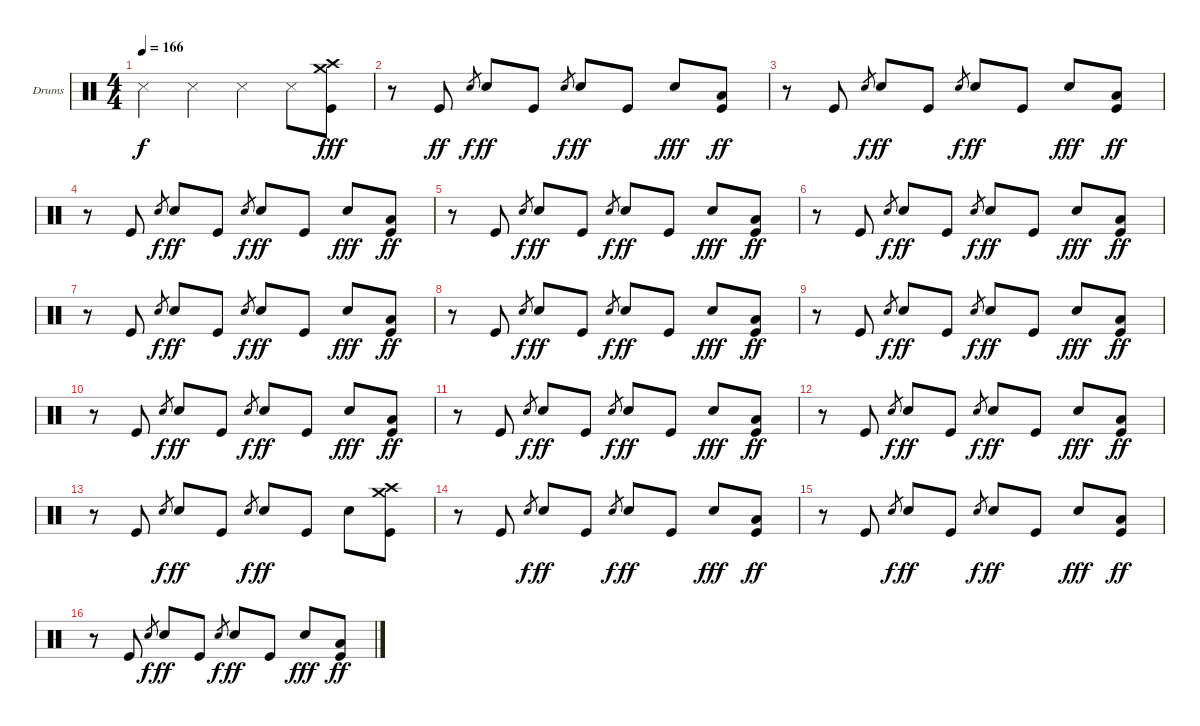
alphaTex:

\defaultSystemsLayout 4
\bracketExtendMode groupsimilarinstruments
\firstSystemTrackNameOrientation horizontal
\otherSystemsTrackNameOrientation horizontal
\track ("Lars Ulrich" "Drums") {instrument percussion}
\staff {score}
\articulation defaults
\ts (4 4)
\tempo 166
\clef neutral
\scale
0.474178
\ks c "Snare (side stick) 3".4{dy f} "Snare (side stick) 3".4 "Snare (side stick) 3".4 "Snare (side stick) 3".8
("Crash high (hit)" "Crash medium (hit)" "Kick (hit)").8{dy fff} |
\scale
0.262911 r.8 "Kick (hit)".8{dy ff} "Snare (hit) 2".8{gr dy f} "Snare (hit) 2".8{dy ff} "Kick (hit)".8 "Snare (hit) 2".8{gr dy f} "Snare (hit) 2".8{dy ff} "Kick (hit)".8 "Snare (hit) 2".8{dy fff} ("Low Tom (hit)" "Kick (hit)").8{dy ff} |
\scale
0.262911 r.8 "Kick (hit)".8 "Snare (hit) 2".8{gr dy f} "Snare (hit) 2".8{dy ff} "Kick (hit)".8 "Snare (hit) 2".8{gr dy f} "Snare (hit) 2".8{dy ff} "Kick (hit)".8 "Snare (hit) 2".8{dy fff} ("Low Tom (hit)" "Kick (hit)").8{dy ff} |
\scale
0.333333 r.8 "Kick (hit)".8 "Snare (hit) 2".8{gr dy f} "Snare (hit) 2".8{dy ff} "Kick (hit)".8 "Snare (hit) 2".8{gr dy f} "Snare (hit) 2".8{dy ff} "Kick (hit)".8 "Snare (hit) 2".8{dy fff} ("Low Tom (hit)" "Kick (hit)").8{dy ff} |
\scale
0.333333 r.8 "Kick (hit)".8 "Snare (hit) 2".8{gr dy f} "Snare (hit) 2".8{dy ff} "Kick (hit)".8 "Snare (hit) 2".8{gr dy f} "Snare (hit) 2".8{dy ff} "Kick (hit)".8 "Snare (hit) 2".8{dy fff} ("Low Tom (hit)" "Kick (hit)").8{dy ff} |
\scale
0.333333 r.8 "Kick (hit)".8 "Snare (hit) 2".8{gr dy f} "Snare (hit) 2".8{dy ff} "Kick (hit)".8 "Snare (hit) 2".8{gr dy f} "Snare (hit) 2".8{dy ff} "Kick (hit)".8 "Snare (hit) 2".8{dy fff} ("Low Tom (hit)" "Kick (hit)").8{dy ff} |
\scale
0.333333 r.8 "Kick (hit)".8 "Snare (hit) 2".8{gr dy f} "Snare (hit) 2".8{dy ff} "Kick (hit)".8 "Snare (hit) 2".8{gr dy f} "Snare (hit) 2".8{dy ff} "Kick (hit)".8 "Snare (hit) 2".8{dy fff} ("Low Tom (hit)" "Kick (hit)").8{dy ff} |
\scale
0.333333 r.8 "Kick (hit)".8 "Snare (hit) 2".8{gr dy f} "Snare (hit) 2".8{dy ff} "Kick (hit)".8 "Snare (hit) 2".8{gr dy f} "Snare (hit) 2".8{dy ff} "Kick (hit)".8 "Snare (hit) 2".8{dy fff} ("Low Tom (hit)" "Kick (hit)").8{dy ff} |
\scale
0.333333 r.8 "Kick (hit)".8 "Snare (hit) 2".8{gr dy f} "Snare (hit) 2".8{dy ff} "Kick (hit)".8 "Snare (hit) 2".8{gr dy f} "Snare (hit) 2".8{dy ff} "Kick (hit)".8 "Snare (hit) 2".8{dy fff} ("Low Tom (hit)" "Kick (hit)").8{dy ff} |
\scale
0.333333 r.8 "Kick (hit)".8 "Snare (hit) 2".8{gr dy f} "Snare (hit) 2".8{dy ff} "Kick (hit)".8 "Snare (hit) 2".8{gr dy f} "Snare (hit) 2".8{dy ff} "Kick (hit)".8 "Snare (hit) 2".8{dy fff} ("Low Tom (hit)" "Kick (hit)").8{dy ff} |
\scale
0.333333 r.8 "Kick (hit)".8 "Snare (hit) 2".8{gr dy f} "Snare (hit) 2".8{dy ff} "Kick (hit)".8 "Snare (hit) 2".8{gr dy f} "Snare (hit) 2".8{dy ff} "Kick (hit)".8 "Snare (hit) 2".8{dy fff} ("Low Tom (hit)" "Kick (hit)").8{dy ff} |
\scale
0.333333 r.8 "Kick (hit)".8 "Snare (hit) 2".8{gr dy f} "Snare (hit) 2".8{dy ff} "Kick (hit)".8 "Snare (hit) 2".8{gr dy f} "Snare (hit) 2".8{dy ff} "Kick (hit)".8 "Snare (hit) 2".8{dy fff} ("Low Tom (hit)" "Kick (hit)").8{dy ff} |
\scale
0.333333 r.8 "Kick (hit)".8 "Snare (hit) 2".8{gr dy f} "Snare (hit) 2".8{dy ff} "Kick (hit)".8 "Snare (hit) 2".8{gr dy f} "Snare (hit) 2".8{dy ff} "Kick (hit)".8 "Snare (hit) 2".8 ("Crash high (hit)" "Crash medium (hit)" "Kick (hit)").8 |
\scale
0.333333 r.8 "Kick (hit)".8 "Snare (hit) 2".8{gr dy f} "Snare (hit) 2".8{dy ff} "Kick (hit)".8 "Snare (hit) 2".8{gr dy f} "Snare (hit) 2".8{dy ff} "Kick (hit)".8 "Snare (hit) 2".8{dy fff} ("Low Tom (hit)" "Kick (hit)").8{dy ff} |
\scale
0.333333 r.8 "Kick (hit)".8 "Snare (hit) 2".8{gr dy f} "Snare (hit) 2".8{dy ff} "Kick (hit)".8 "Snare (hit) 2".8{gr dy f} "Snare (hit) 2".8{dy ff} "Kick (hit)".8 "Snare (hit) 2".8{dy fff} ("Low Tom (hit)" "Kick (hit)").8{dy ff} |
\scale
0.333333 r.8 "Kick (hit)".8 "Snare (hit) 2".8{gr dy f} "Snare (hit) 2".8{dy ff} "Kick (hit)".8 "Snare (hit) 2".8{gr dy f} "Snare (hit) 2".8{dy ff} "Kick (hit)".8 "Snare (hit) 2".8{dy fff} ("Low Tom (hit)" "Kick (hit)").8{dy ff}
